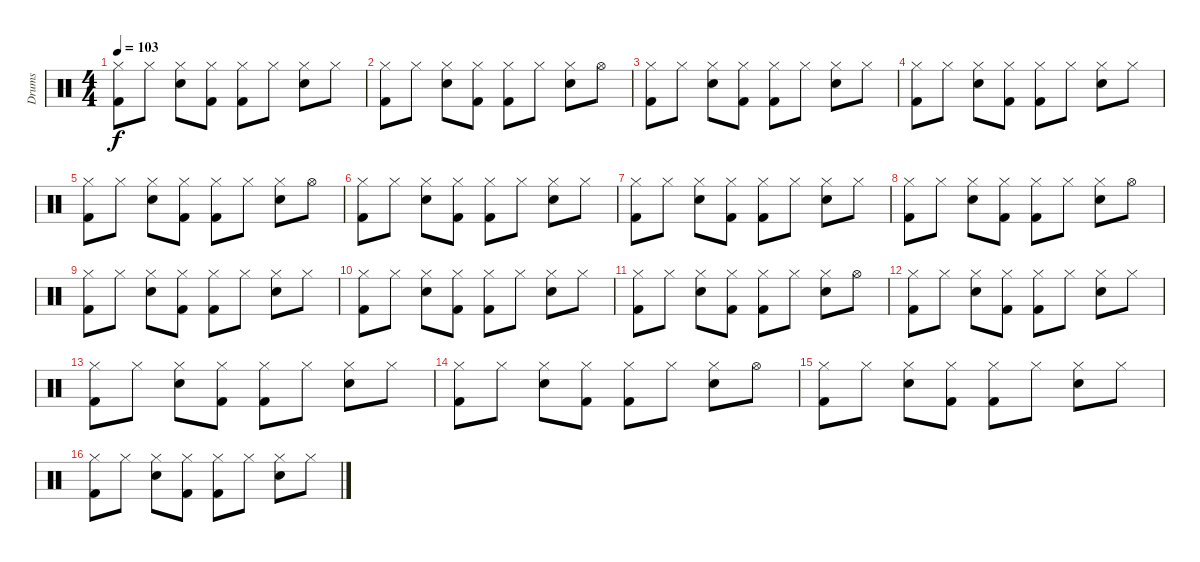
\track ("Drums" "Drums") {instrument percussion}
\staff {score}
\articulation defaults
\ts (4 4)
\tempo 103
\clef neutral
\ks c
("Hi-Hat (closed)" "Kick (hit) 2").8{dy f} "Hi-Hat (closed)".8 ("Hi-Hat (closed)" "Electric Snare (hit)").8 ("Hi-Hat (closed)" "Kick (hit) 2").8 ("Hi-Hat (closed)" "Kick (hit) 2").8 "Hi-Hat (closed)".8 ("Hi-Hat (closed)" "Electric Snare (hit)").8 "Hi-Hat (closed)".8 |
("Hi-Hat (closed)" "Kick (hit) 2").8 "Hi-Hat (closed)".8 ("Hi-Hat (closed)" "Electric Snare (hit)").8 ("Hi-Hat (closed)" "Kick (hit) 2").8 ("Hi-Hat (closed)" "Kick (hit) 2").8 "Hi-Hat (closed)".8 ("Hi-Hat (closed)" "Electric Snare (hit)").8 "Hi-Hat (open)".8 |
("Hi-Hat (closed)" "Kick (hit) 2").8 "Hi-Hat (closed)".8 ("Hi-Hat (closed)" "Electric Snare (hit)").8 ("Hi-Hat (closed)" "Kick (hit) 2").8 ("Hi-Hat (closed)" "Kick (hit) 2").8 "Hi-Hat (closed)".8 ("Hi-Hat (closed)" "Electric Snare (hit)").8 "Hi-Hat (closed)".8 |
("Hi-Hat (closed)" "Kick (hit) 2").8 "Hi-Hat (closed)".8 ("Hi-Hat (closed)" "Electric Snare (hit)").8 ("Hi-Hat (closed)" "Kick (hit) 2").8 ("Hi-Hat (closed)" "Kick (hit) 2").8 "Hi-Hat (closed)".8 ("Hi-Hat (closed)" "Electric Snare (hit)").8 "Hi-Hat (closed)".8 |
("Hi-Hat (closed)" "Kick (hit) 2").8 "Hi-Hat (closed)".8 ("Hi-Hat (closed)" "Electric Snare (hit)").8 ("Hi-Hat (closed)" "Kick (hit) 2").8 ("Hi-Hat (closed)" "Kick (hit) 2").8 "Hi-Hat (closed)".8 ("Hi-Hat (closed)" "Electric Snare (hit)").8 "Hi-Hat (open)".8 |
("Hi-Hat (closed)" "Kick (hit) 2").8 "Hi-Hat (closed)".8 ("Hi-Hat (closed)" "Electric Snare (hit)").8 ("Hi-Hat (closed)" "Kick (hit) 2").8 ("Hi-Hat (closed)" "Kick (hit) 2").8 "Hi-Hat (closed)".8 ("Hi-Hat (closed)" "Electric Snare (hit)").8 "Hi-Hat (closed)".8 |
("Hi-Hat (closed)" "Kick (hit) 2").8 "Hi-Hat (closed)".8 ("Hi-Hat (closed)" "Electric Snare (hit)").8 ("Hi-Hat (closed)" "Kick (hit) 2").8 ("Hi-Hat (closed)" "Kick (hit) 2").8 "Hi-Hat (closed)".8 ("Hi-Hat (closed)" "Electric Snare (hit)").8 "Hi-Hat (closed)".8 |
("Hi-Hat (closed)" "Kick (hit) 2").8 "Hi-Hat (closed)".8 ("Hi-Hat (closed)" "Electric Snare (hit)").8 ("Hi-Hat (closed)" "Kick (hit) 2").8 ("Hi-Hat (closed)" "Kick (hit) 2").8 "Hi-Hat (closed)".8 ("Hi-Hat (closed)" "Electric Snare (hit)").8 "Hi-Hat (open)".8 |
("Hi-Hat (closed)" "Kick (hit) 2").8 "Hi-Hat (closed)".8 ("Hi-Hat (closed)" "Electric Snare (hit)").8 ("Hi-Hat (closed)" "Kick (hit) 2").8 ("Hi-Hat (closed)" "Kick (hit) 2").8 "Hi-Hat (closed)".8 ("Hi-Hat (closed)" "Electric Snare (hit)").8 "Hi-Hat (closed)".8 |
("Hi-Hat (closed)" "Kick (hit) 2").8 "Hi-Hat (closed)".8 ("Hi-Hat (closed)" "Electric Snare (hit)").8 ("Hi-Hat (closed)" "Kick (hit) 2").8 ("Hi-Hat (closed)" "Kick (hit) 2").8 "Hi-Hat (closed)".8 ("Hi-Hat (closed)" "Electric Snare (hit)").8 "Hi-Hat (closed)".8 |
("Hi-Hat (closed)" "Kick (hit) 2").8 "Hi-Hat (closed)".8 ("Hi-Hat (closed)" "Electric Snare (hit)").8 ("Hi-Hat (closed)" "Kick (hit) 2").8 ("Hi-Hat (closed)" "Kick (hit) 2").8 "Hi-Hat (closed)".8 ("Hi-Hat (closed)" "Electric Snare (hit)").8 "Hi-Hat (open)".8 |
("Hi-Hat (closed)" "Kick (hit) 2").8 "Hi-Hat (closed)".8 ("Hi-Hat (closed)" "Electric Snare (hit)").8 ("Hi-Hat (closed)" "Kick (hit) 2").8 ("Hi-Hat (closed)" "Kick (hit) 2").8 "Hi-Hat (closed)".8 ("Hi-Hat (closed)" "Electric Snare (hit)").8 "Hi-Hat (closed)".8 |
("Hi-Hat (closed)" "Kick (hit) 2").8 "Hi-Hat (closed)".8 ("Hi-Hat (closed)" "Electric Snare (hit)").8 ("Hi-Hat (closed)" "Kick (hit) 2").8 ("Hi-Hat (closed)" "Kick (hit) 2").8 "Hi-Hat (closed)".8 ("Hi-Hat (closed)" "Electric Snare (hit)").8 "Hi-Hat (closed)".8 |
("Hi-Hat (closed)" "Kick (hit) 2").8 "Hi-Hat (closed)".8 ("Hi-Hat (closed)" "Electric Snare (hit)").8 ("Hi-Hat (closed)" "Kick (hit) 2").8 ("Hi-Hat (closed)" "Kick (hit) 2").8 "Hi-Hat (closed)".8 ("Hi-Hat (closed)" "Electric Snare (hit)").8 "Hi-Hat (open)".8 |
("Hi-Hat (closed)" "Kick (hit) 2").8 "Hi-Hat (closed)".8 ("Hi-Hat (closed)" "Electric Snare (hit)").8 ("Hi-Hat (closed)" "Kick (hit) 2").8 ("Hi-Hat (closed)" "Kick (hit) 2").8 "Hi-Hat (closed)".8 ("Hi-Hat (closed)" "Electric Snare (hit)").8 "Hi-Hat (closed)".8 |
("Hi-Hat (closed)" "Kick (hit) 2").8 "Hi-Hat (closed)".8 ("Hi-Hat (closed)" "Electric Snare (hit)").8 ("Hi-Hat (closed)" "Kick (hit) 2").8 ("Hi-Hat (closed)" "Kick (hit) 2").8 "Hi-Hat (closed)".8 ("Hi-Hat (closed)" "Electric Snare (hit)").8 "Hi-Hat (closed)".8
